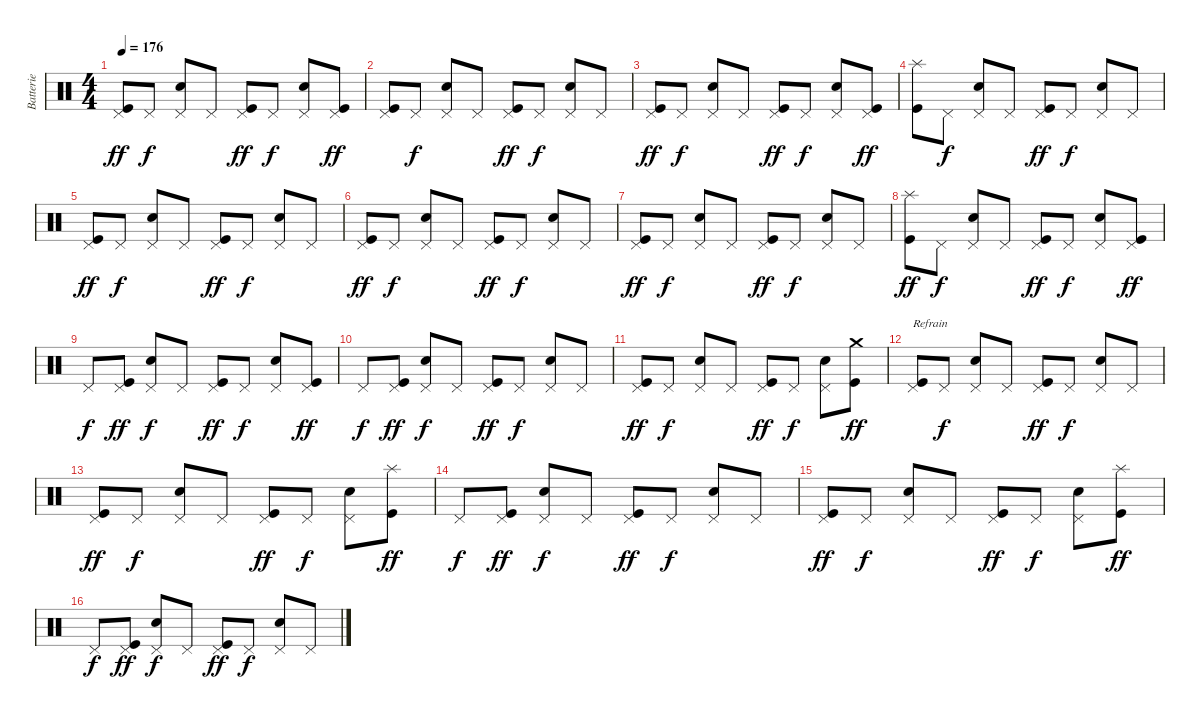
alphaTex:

\track ("Batterie" "Batterie") {instrument percussion}
\staff {score}
\articulation defaults
\ts (4 4)
\tempo 176
\clef neutral
\ks c
("Pedal Hi-Hat (hit)" "Kick (hit)").8{dy ff} "Pedal Hi-Hat (hit)".8{dy f} ("Pedal Hi-Hat (hit)" "Snare (hit) 2").8 "Pedal Hi-Hat (hit)".8 ("Pedal Hi-Hat (hit)" "Kick (hit)").8{dy ff} "Pedal Hi-Hat (hit)".8{dy f} ("Pedal Hi-Hat (hit)" "Snare (hit) 2").8 ("Pedal Hi-Hat (hit)" "Kick (hit)").8{dy ff} |
("Pedal Hi-Hat (hit)" "Kick (hit)").8 "Pedal Hi-Hat (hit)".8{dy f} ("Pedal Hi-Hat (hit)" "Snare (hit) 2").8 "Pedal Hi-Hat (hit)".8 ("Pedal Hi-Hat (hit)" "Kick (hit)").8{dy ff} "Pedal Hi-Hat (hit)".8{dy f} ("Pedal Hi-Hat (hit)" "Snare (hit) 2").8 "Pedal Hi-Hat (hit)".8 |
("Pedal Hi-Hat (hit)" "Kick (hit)").8{dy ff} "Pedal Hi-Hat (hit)".8{dy f} ("Pedal Hi-Hat (hit)" "Snare (hit) 2").8 "Pedal Hi-Hat (hit)".8 ("Pedal Hi-Hat (hit)" "Kick (hit)").8{dy ff} "Pedal Hi-Hat (hit)".8{dy f} ("Pedal Hi-Hat (hit)" "Snare (hit) 2").8 ("Pedal Hi-Hat (hit)" "Kick (hit)").8{dy ff} |
("Splash (hit)" "Kick (hit)").8 "Pedal Hi-Hat (hit)".8{dy f} ("Pedal Hi-Hat (hit)" "Snare (hit) 2").8 "Pedal Hi-Hat (hit)".8 ("Pedal Hi-Hat (hit)" "Kick (hit)").8{dy ff} "Pedal Hi-Hat (hit)".8{dy f} ("Pedal Hi-Hat (hit)" "Snare (hit) 2").8 "Pedal Hi-Hat (hit)".8 |
("Pedal Hi-Hat (hit)" "Kick (hit)").8{dy ff} "Pedal Hi-Hat (hit)".8{dy f} ("Pedal Hi-Hat (hit)" "Snare (hit) 2").8 "Pedal Hi-Hat (hit)".8 ("Pedal Hi-Hat (hit)" "Kick (hit)").8{dy ff} "Pedal Hi-Hat (hit)".8{dy f} ("Pedal Hi-Hat (hit)" "Snare (hit) 2").8 "Pedal Hi-Hat (hit)".8 |
("Pedal Hi-Hat (hit)" "Kick (hit)").8{dy ff} "Pedal Hi-Hat (hit)".8{dy f} ("Pedal Hi-Hat (hit)" "Snare (hit) 2").8 "Pedal Hi-Hat (hit)".8 ("Pedal Hi-Hat (hit)" "Kick (hit)").8{dy ff} "Pedal Hi-Hat (hit)".8{dy f} ("Pedal Hi-Hat (hit)" "Snare (hit) 2").8 "Pedal Hi-Hat (hit)".8 |
("Pedal Hi-Hat (hit)" "Kick (hit)").8{dy ff} "Pedal Hi-Hat (hit)".8{dy f} ("Pedal Hi-Hat (hit)" "Snare (hit) 2").8 "Pedal Hi-Hat (hit)".8 ("Pedal Hi-Hat (hit)" "Kick (hit)").8{dy ff} "Pedal Hi-Hat (hit)".8{dy f} ("Pedal Hi-Hat (hit)" "Snare (hit) 2").8 "Pedal Hi-Hat (hit)".8 |
("Splash (hit)" "Kick (hit)").8{dy ff} "Pedal Hi-Hat (hit)".8{dy f} ("Pedal Hi-Hat (hit)" "Snare (hit) 2").8 "Pedal Hi-Hat (hit)".8 ("Pedal Hi-Hat (hit)" "Kick (hit)").8{dy ff} "Pedal Hi-Hat (hit)".8{dy f} ("Pedal Hi-Hat (hit)" "Snare (hit) 2").8 ("Pedal Hi-Hat (hit)" "Kick (hit)").8{dy ff} |
"Pedal Hi-Hat (hit)".8{dy f} ("Pedal Hi-Hat (hit)" "Kick (hit)").8{dy ff} ("Pedal Hi-Hat (hit)" "Snare (hit) 2").8{dy f} "Pedal Hi-Hat (hit)".8 ("Pedal Hi-Hat (hit)" "Kick (hit)").8{dy ff} "Pedal Hi-Hat (hit)".8{dy f} ("Pedal Hi-Hat (hit)" "Snare (hit) 2").8 ("Pedal Hi-Hat (hit)" "Kick (hit)").8{dy ff} |
"Pedal Hi-Hat (hit)".8{dy f} ("Pedal Hi-Hat (hit)" "Kick (hit)").8{dy ff} ("Pedal Hi-Hat (hit)" "Snare (hit) 2").8{dy f} "Pedal Hi-Hat (hit)".8 ("Pedal Hi-Hat (hit)" "Kick (hit)").8{dy ff} "Pedal Hi-Hat (hit)".8{dy f} ("Pedal Hi-Hat (hit)" "Snare (hit) 2").8 "Pedal Hi-Hat (hit)".8 |
("Pedal Hi-Hat (hit)" "Kick (hit)").8{dy ff} "Pedal Hi-Hat (hit)".8{dy f} ("Pedal Hi-Hat (hit)" "Snare (hit) 2").8 "Pedal Hi-Hat (hit)".8 ("Pedal Hi-Hat (hit)" "Kick (hit)").8{dy ff} "Pedal Hi-Hat (hit)".8{dy f} ("Pedal Hi-Hat (hit)" "Snare (hit) 2").8 ("Crash medium (hit)" "Kick (hit)").8{dy ff} |
("Pedal Hi-Hat (hit)" "Kick (hit)").8{txt "Refrain"} "Pedal Hi-Hat (hit)".8{dy f} ("Pedal Hi-Hat (hit)" "Snare (hit) 2").8 "Pedal Hi-Hat (hit)".8 ("Pedal Hi-Hat (hit)" "Kick (hit)").8{dy ff} "Pedal Hi-Hat (hit)".8{dy f} ("Pedal Hi-Hat (hit)" "Snare (hit) 2").8 "Pedal Hi-Hat (hit)".8 |
("Pedal Hi-Hat (hit)" "Kick (hit)").8{dy ff} "Pedal Hi-Hat (hit)".8{dy f} ("Pedal Hi-Hat (hit)" "Snare (hit) 2").8 "Pedal Hi-Hat (hit)".8 ("Pedal Hi-Hat (hit)" "Kick (hit)").8{dy ff} "Pedal Hi-Hat (hit)".8{dy f} ("Pedal Hi-Hat (hit)" "Snare (hit) 2").8 ("Splash (hit)" "Kick (hit)").8{dy ff} |
"Pedal Hi-Hat (hit)".8{dy f} ("Pedal Hi-Hat (hit)" "Kick (hit)").8{dy ff} ("Pedal Hi-Hat (hit)" "Snare (hit) 2").8{dy f} "Pedal Hi-Hat (hit)".8 ("Pedal Hi-Hat (hit)" "Kick (hit)").8{dy ff} "Pedal Hi-Hat (hit)".8{dy f} ("Pedal Hi-Hat (hit)" "Snare (hit) 2").8 "Pedal Hi-Hat (hit)".8 |
("Pedal Hi-Hat (hit)" "Kick (hit)").8{dy ff} "Pedal Hi-Hat (hit)".8{dy f} ("Pedal Hi-Hat (hit)" "Snare (hit) 2").8 "Pedal Hi-Hat (hit)".8 ("Pedal Hi-Hat (hit)" "Kick (hit)").8{dy ff} "Pedal Hi-Hat (hit)".8{dy f} ("Pedal Hi-Hat (hit)" "Snare (hit) 2").8 ("Splash (hit)" "Kick (hit)").8{dy ff} |
"Pedal Hi-Hat (hit)".8{dy f} ("Pedal Hi-Hat (hit)" "Kick (hit)").8{dy ff} ("Pedal Hi-Hat (hit)" "Snare (hit) 2").8{dy f} "Pedal Hi-Hat (hit)".8 ("Pedal Hi-Hat (hit)" "Kick (hit)").8{dy ff} "Pedal Hi-Hat (hit)".8{dy f} ("Pedal Hi-Hat (hit)" "Snare (hit) 2").8 "Pedal Hi-Hat (hit)".8
